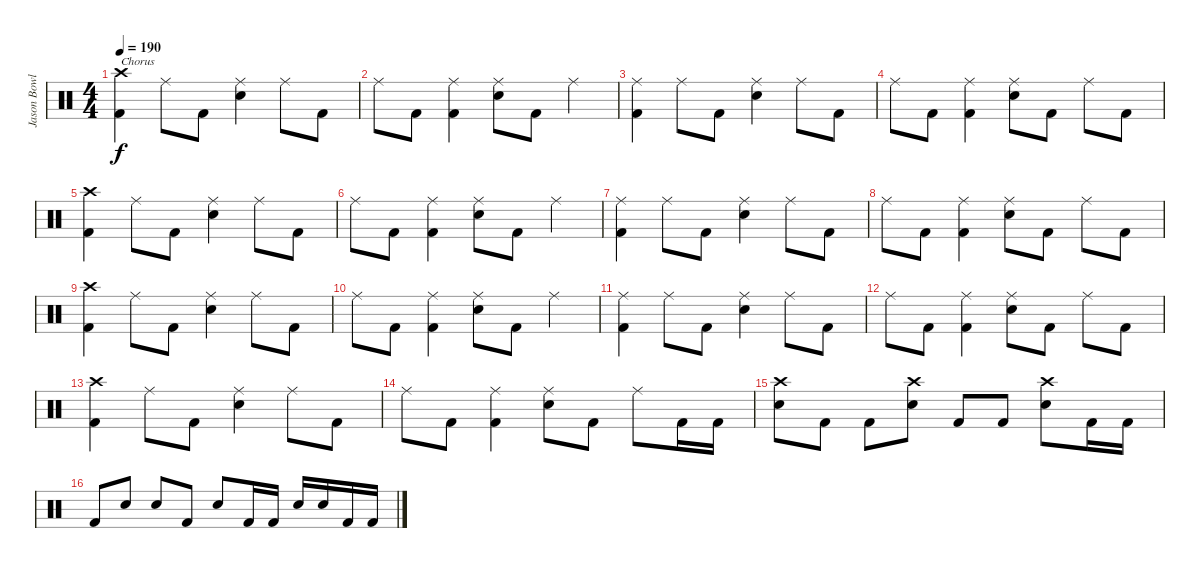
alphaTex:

\track ("Jason Bowld" "Jason Bowl") {instrument percussion}
\staff {score}
\articulation defaults
\ts (4 4)
\tempo 190
\clef neutral
\ks c
("Crash high (hit)" "Kick (hit) 2").4{txt "Chorus" dy f} "Ride (middle)".8 "Kick (hit) 2".8 ("Ride (middle)" "Snare (hit) 2").4 "Ride (middle)".8 "Kick (hit) 2".8 |
"Ride (middle)".8 "Kick (hit) 2".8 ("Ride (middle)" "Kick (hit) 2").4 ("Ride (middle)" "Snare (hit) 2").8 "Kick (hit) 2".8 "Ride (middle)".4 |
("Ride (middle)" "Kick (hit) 2").4 "Ride (middle)".8 "Kick (hit) 2".8 ("Ride (middle)" "Snare (hit) 2").4 "Ride (middle)".8 "Kick (hit) 2".8 |
"Ride (middle)".8 "Kick (hit) 2".8 ("Ride (middle)" "Kick (hit) 2").4 ("Ride (middle)" "Snare (hit) 2").8 "Kick (hit) 2".8 "Ride (middle)".8 "Kick (hit) 2".8 |
("Crash high (hit)" "Kick (hit) 2").4 "Ride (middle)".8 "Kick (hit) 2".8 ("Ride (middle)" "Snare (hit) 2").4 "Ride (middle)".8 "Kick (hit) 2".8 |
"Ride (middle)".8 "Kick (hit) 2".8 ("Ride (middle)" "Kick (hit) 2").4 ("Ride (middle)" "Snare (hit) 2").8 "Kick (hit) 2".8 "Ride (middle)".4 |
("Ride (middle)" "Kick (hit) 2").4 "Ride (middle)".8 "Kick (hit) 2".8 ("Ride (middle)" "Snare (hit) 2").4 "Ride (middle)".8 "Kick (hit) 2".8 |
"Ride (middle)".8 "Kick (hit) 2".8 ("Ride (middle)" "Kick (hit) 2").4 ("Ride (middle)" "Snare (hit) 2").8 "Kick (hit) 2".8 "Ride (middle)".8 "Kick (hit) 2".8 |
("Crash high (hit)" "Kick (hit) 2").4 "Ride (middle)".8 "Kick (hit) 2".8 ("Ride (middle)" "Snare (hit) 2").4 "Ride (middle)".8 "Kick (hit) 2".8 |
"Ride (middle)".8 "Kick (hit) 2".8 ("Ride (middle)" "Kick (hit) 2").4 ("Ride (middle)" "Snare (hit) 2").8 "Kick (hit) 2".8 "Ride (middle)".4 |
("Ride (middle)" "Kick (hit) 2").4 "Ride (middle)".8 "Kick (hit) 2".8 ("Ride (middle)" "Snare (hit) 2").4 "Ride (middle)".8 "Kick (hit) 2".8 |
"Ride (middle)".8 "Kick (hit) 2".8 ("Ride (middle)" "Kick (hit) 2").4 ("Ride (middle)" "Snare (hit) 2").8 "Kick (hit) 2".8 "Ride (middle)".8 "Kick (hit) 2".8 |
("Crash high (hit)" "Kick (hit) 2").4 "Ride (middle)".8 "Kick (hit) 2".8 ("Ride (middle)" "Snare (hit) 2").4 "Ride (middle)".8 "Kick (hit) 2".8 |
"Ride (middle)".8 "Kick (hit) 2".8 ("Ride (middle)" "Kick (hit) 2").4 ("Ride (middle)" "Snare (hit) 2").8 "Kick (hit) 2".8 "Ride (middle)".8 "Kick (hit) 2".16 "Kick (hit) 2".16 |
("Crash high (hit)" "Snare (hit) 2").8 "Kick (hit) 2".8 "Kick (hit) 2".8 ("Crash high (hit)" "Snare (hit) 2").8 "Kick (hit) 2".8 "Kick (hit) 2".8 ("Crash high (hit)" "Snare (hit) 2").8 "Kick (hit) 2".16 "Kick (hit) 2".16 |
"Kick (hit) 2".8 "Snare (hit) 2".8 "Snare (hit) 2".8 "Kick (hit) 2".8 "Snare (hit) 2".8 "Kick (hit) 2".16 "Kick (hit) 2".16 "Snare (hit) 2".16 "Snare (hit) 2".16 "Kick (hit) 2".16 "Kick (hit) 2".16
